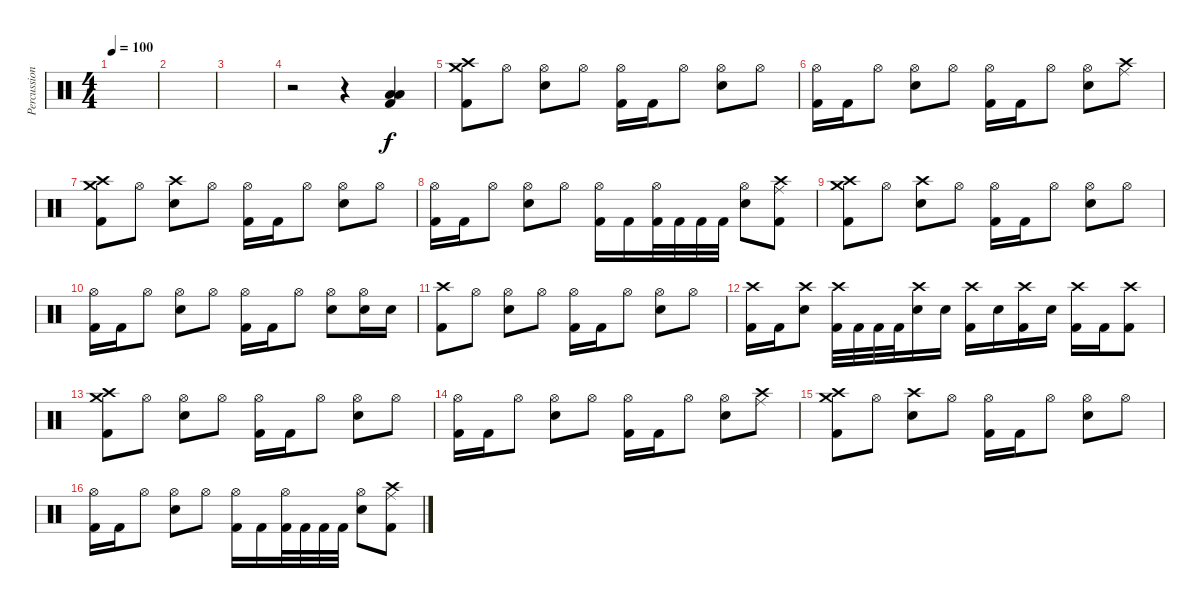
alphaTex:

\track ("Percussion" "Percussion") {instrument percussion}
\staff {score}
\articulation defaults
\ts (4 4)
\tempo 100
\clef neutral
\ks c
|
|
|
r.2 r.4 ("Low Floor Tom (hit)" "Low Floor Tom (hit)" "Kick (hit) 2").4 |
("Crash high (hit)" "Crash medium (hit)" "Kick (hit) 2").8 "Hi-Hat (open)".8 ("Hi-Hat (open)" "Electric Snare (hit)").8 "Hi-Hat (open)".8 ("Hi-Hat (open)" "Kick (hit) 2").16 "Kick (hit) 2".16 "Hi-Hat (open)".8 ("Hi-Hat (open)" "Electric Snare (hit)").8 "Hi-Hat (open)".8 |
("Hi-Hat (open)" "Kick (hit) 2").16 "Kick (hit) 2".16 "Hi-Hat (open)".8 ("Hi-Hat (open)" "Electric Snare (hit)").8 "Hi-Hat (open)".8 ("Hi-Hat (open)" "Kick (hit) 2").16 "Kick (hit) 2".16 "Hi-Hat (open)".8 ("Hi-Hat (open)" "Electric Snare (hit)").8 ("Crash high (hit)" "Ride (middle)").8 |
("Crash high (hit)" "Crash medium (hit)" "Kick (hit) 2").8 "Hi-Hat (open)".8 ("Crash high (hit)" "Electric Snare (hit)").8 "Hi-Hat (open)".8 ("Hi-Hat (open)" "Kick (hit) 2").16 "Kick (hit) 2".16 "Hi-Hat (open)".8 ("Hi-Hat (open)" "Electric Snare (hit)").8 "Hi-Hat (open)".8 |
("Hi-Hat (open)" "Kick (hit) 2").16 "Kick (hit) 2".16 "Hi-Hat (open)".8 ("Hi-Hat (open)" "Electric Snare (hit)").8 "Hi-Hat (open)".8 ("Hi-Hat (open)" "Kick (hit) 2").16 "Kick (hit) 2".16 ("Hi-Hat (open)" "Kick (hit) 2").32 "Kick (hit) 2".32 "Kick (hit) 2".32 "Kick (hit) 2".32 ("Hi-Hat (open)" "Electric Snare (hit)").8 ("Crash high (hit)" "Ride (middle)" "Kick (hit) 2").8 |
("Crash high (hit)" "Crash medium (hit)" "Kick (hit) 2").8 "Hi-Hat (open)".8 ("Crash high (hit)" "Electric Snare (hit)").8 "Hi-Hat (open)".8 ("Hi-Hat (open)" "Kick (hit) 2").16 "Kick (hit) 2".16 "Hi-Hat (open)".8 ("Hi-Hat (open)" "Electric Snare (hit)").8 "Hi-Hat (open)".8 |
("Hi-Hat (open)" "Kick (hit) 2").16 "Kick (hit) 2".16 "Hi-Hat (open)".8 ("Hi-Hat (open)" "Electric Snare (hit)").8 "Hi-Hat (open)".8 ("Hi-Hat (open)" "Kick (hit) 2").16 "Kick (hit) 2".16 "Hi-Hat (open)".8 ("Hi-Hat (open)" "Electric Snare (hit)").8 ("Hi-Hat (open)" "Electric Snare (hit)").16 "Electric Snare (hit)".16 |
("Crash high (hit)" "Kick (hit) 2").8 "Hi-Hat (open)".8 ("Hi-Hat (open)" "Electric Snare (hit)").8 "Hi-Hat (open)".8 ("Hi-Hat (open)" "Kick (hit) 2").16 "Kick (hit) 2".16 "Hi-Hat (open)".8 ("Hi-Hat (open)" "Electric Snare (hit)").8 "Hi-Hat (open)".8 |
("Crash high (hit)" "Kick (hit) 2").16 "Kick (hit) 2".16 ("Crash high (hit)" "Electric Snare (hit)").8 ("Crash high (hit)" "Kick (hit) 2").32 "Kick (hit) 2".32 "Kick (hit) 2".32 "Kick (hit) 2".32 ("Crash high (hit)" "Electric Snare (hit)").16 "Electric Snare (hit)".16 ("Crash high (hit)" "Kick (hit) 2").16 "Electric Snare (hit)".16 ("Crash high (hit)" "Kick (hit) 2").16 "Electric Snare (hit)".16 ("Crash high (hit)" "Kick (hit) 2").16 "Kick (hit) 2".16 ("Crash high (hit)" "Kick (hit) 2").8 |
("Crash high (hit)" "Crash medium (hit)" "Kick (hit) 2").8 "Hi-Hat (open)".8 ("Hi-Hat (open)" "Electric Snare (hit)").8 "Hi-Hat (open)".8 ("Hi-Hat (open)" "Kick (hit) 2").16 "Kick (hit) 2".16 "Hi-Hat (open)".8 ("Hi-Hat (open)" "Electric Snare (hit)").8 "Hi-Hat (open)".8 |
("Hi-Hat (open)" "Kick (hit) 2").16 "Kick (hit) 2".16 "Hi-Hat (open)".8 ("Hi-Hat (open)" "Electric Snare (hit)").8 "Hi-Hat (open)".8 ("Hi-Hat (open)" "Kick (hit) 2").16 "Kick (hit) 2".16 "Hi-Hat (open)".8 ("Hi-Hat (open)" "Electric Snare (hit)").8 ("Crash high (hit)" "Ride (middle)").8 |
("Crash high (hit)" "Crash medium (hit)" "Kick (hit) 2").8 "Hi-Hat (open)".8 ("Crash high (hit)" "Electric Snare (hit)").8 "Hi-Hat (open)".8 ("Hi-Hat (open)" "Kick (hit) 2").16 "Kick (hit) 2".16 "Hi-Hat (open)".8 ("Hi-Hat (open)" "Electric Snare (hit)").8 "Hi-Hat (open)".8 |
("Hi-Hat (open)" "Kick (hit) 2").16 "Kick (hit) 2".16 "Hi-Hat (open)".8 ("Hi-Hat (open)" "Electric Snare (hit)").8 "Hi-Hat (open)".8 ("Hi-Hat (open)" "Kick (hit) 2").16 "Kick (hit) 2".16 ("Hi-Hat (open)" "Kick (hit) 2").32 "Kick (hit) 2".32 "Kick (hit) 2".32 "Kick (hit) 2".32 ("Hi-Hat (open)" "Electric Snare (hit)").8 ("Crash high (hit)" "Ride (middle)" "Kick (hit) 2").8
